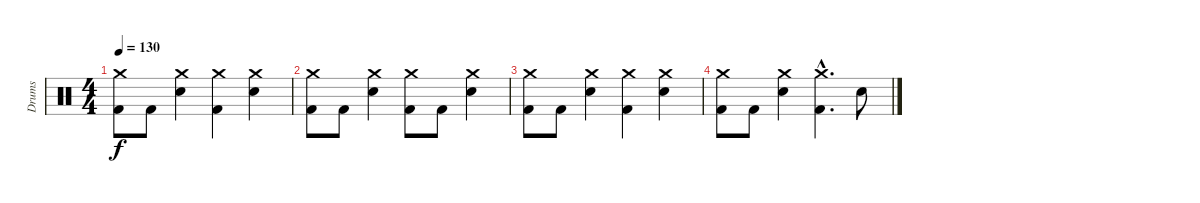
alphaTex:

\track ("Drums" "Drums") {instrument percussion}
\staff {score}
\articulation defaults
\ts (4 4)
\tempo 130
\clef neutral
\ks c
("Crash medium (hit)" "Kick (hit) 2").8{dy f} "Kick (hit) 2".8 ("Crash medium (hit)" "Snare (hit) 2").4 ("Crash medium (hit)" "Kick (hit) 2").4 ("Crash medium (hit)" "Snare (hit) 2").4 |
("Crash medium (hit)" "Kick (hit) 2").8 "Kick (hit) 2".8 ("Crash medium (hit)" "Snare (hit) 2").4 ("Crash medium (hit)" "Kick (hit) 2").8 "Kick (hit) 2".8 ("Crash medium (hit)" "Snare (hit) 2").4 |
("Crash medium (hit)" "Kick (hit) 2").8 "Kick (hit) 2".8 ("Crash medium (hit)" "Snare (hit) 2").4 ("Crash medium (hit)" "Kick (hit) 2").4 ("Crash medium (hit)" "Snare (hit) 2").4 |
("Crash medium (hit)" "Kick (hit) 2").8 "Kick (hit) 2".8 ("Crash medium (hit)" "Snare (hit) 2").4 ("Crash medium (hit)"{hac} "Kick (hit) 2"{hac}).4{d} "Snare (hit) 2".8
